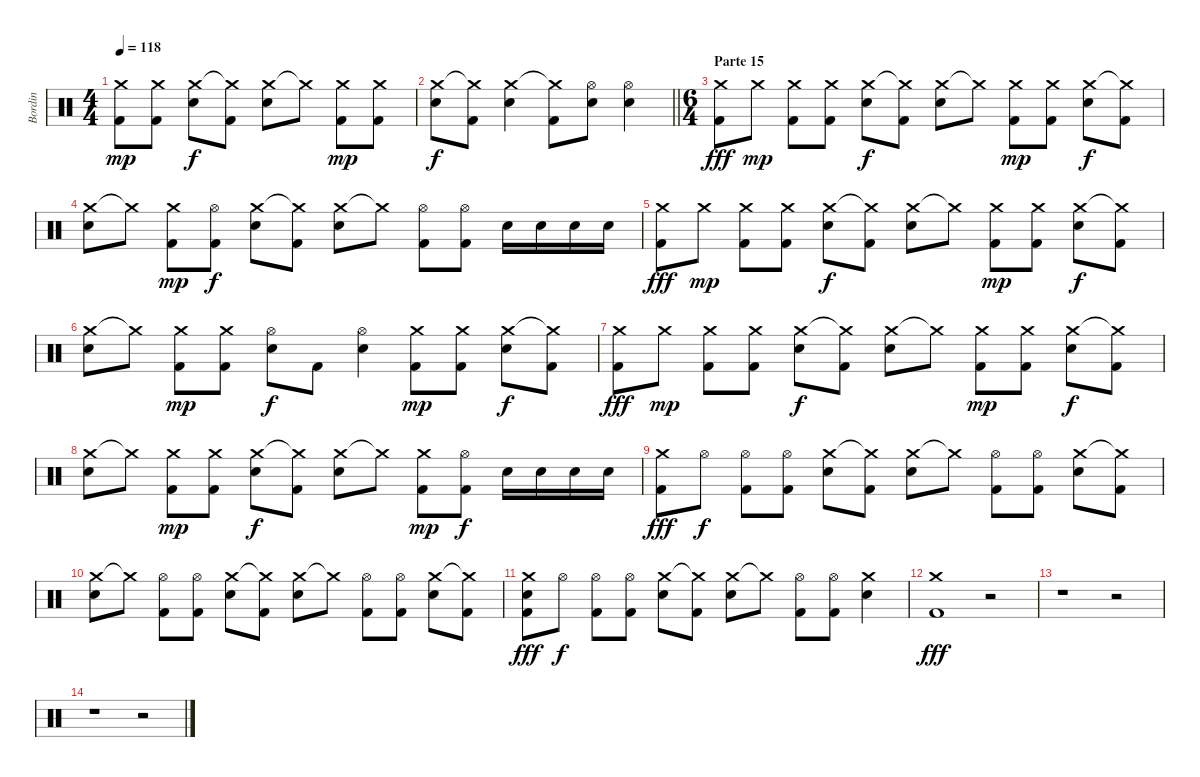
\track ("Bordin" "Bordin") {instrument percussion}
\staff {score}
\articulation defaults
\ts (4 4)
\tempo 118
\clef neutral
\ks c
("Crash medium (hit)" "Kick (hit) 2").8{dy mp} ("Crash medium (hit)" "Kick (hit) 2").8 ("Crash medium (hit)" "Electric Snare (hit)").8{dy f} ("Crash medium (hit)"{t} "Kick (hit) 2").8 ("Crash medium (hit)" "Electric Snare (hit)").8 "Crash medium (hit)"{t}.8 ("Crash medium (hit)" "Kick (hit) 2").8{dy mp} ("Crash medium (hit)" "Kick (hit) 2").8 |
\barLineRight lightlight
("Crash medium (hit)" "Electric Snare (hit)").8{dy f} ("Crash medium (hit)"{t} "Kick (hit) 2").8 ("Crash medium (hit)" "Electric Snare (hit)").4 ("Crash medium (hit)"{t} "Kick (hit) 2").8 ("Hi-Hat (open)" "Electric Snare (hit)").8 ("Hi-Hat (open)" "Electric Snare (hit)").4 |
\ts (6 4)
\section ("" "Parte 15")
("Crash medium (hit)" "Kick (hit) 2").8{dy fff} "Crash medium (hit)".8{dy mp} ("Crash medium (hit)" "Kick (hit) 2").8 ("Crash medium (hit)" "Kick (hit) 2").8 ("Crash medium (hit)" "Electric Snare (hit)").8{dy f} ("Crash medium (hit)"{t} "Kick (hit) 2").8 ("Crash medium (hit)" "Electric Snare (hit)").8 "Crash medium (hit)"{t}.8 ("Crash medium (hit)" "Kick (hit) 2").8{dy mp} ("Crash medium (hit)" "Kick (hit) 2").8 ("Crash medium (hit)" "Electric Snare (hit)").8{dy f} ("Crash medium (hit)"{t} "Kick (hit) 2").8 |
("Crash medium (hit)" "Electric Snare (hit)").8 "Crash medium (hit)"{t}.8 ("Crash medium (hit)" "Kick (hit) 2").8{dy mp} ("Hi-Hat (open)" "Kick (hit) 2").8{dy f} ("Crash medium (hit)" "Electric Snare (hit)").8 ("Crash medium (hit)"{t} "Kick (hit) 2").8 ("Crash medium (hit)" "Electric Snare (hit)").8 "Crash medium (hit)"{t}.8 ("Hi-Hat (open)" "Kick (hit) 2").8 ("Hi-Hat (open)" "Kick (hit) 2").8 "Electric Snare (hit)".16 "Electric Snare (hit)".16 "Electric Snare (hit)".16 "Electric Snare (hit)".16 |
("Crash medium (hit)" "Kick (hit) 2").8{dy fff} "Crash medium (hit)".8{dy mp} ("Crash medium (hit)" "Kick (hit) 2").8 ("Crash medium (hit)" "Kick (hit) 2").8 ("Crash medium (hit)" "Electric Snare (hit)").8{dy f} ("Crash medium (hit)"{t} "Kick (hit) 2").8 ("Crash medium (hit)" "Electric Snare (hit)").8 "Crash medium (hit)"{t}.8 ("Crash medium (hit)" "Kick (hit) 2").8{dy mp} ("Crash medium (hit)" "Kick (hit) 2").8 ("Crash medium (hit)" "Electric Snare (hit)").8{dy f} ("Crash medium (hit)"{t} "Kick (hit) 2").8 |
("Crash medium (hit)" "Electric Snare (hit)").8 "Crash medium (hit)"{t}.8 ("Crash medium (hit)" "Kick (hit) 2").8{dy mp} ("Crash medium (hit)" "Kick (hit) 2").8 ("Hi-Hat (open)" "Electric Snare (hit)").8{dy f} "Kick (hit) 2".8 ("Hi-Hat (open)" "Electric Snare (hit)").4 ("Crash medium (hit)" "Kick (hit) 2").8{dy mp} ("Crash medium (hit)" "Kick (hit) 2").8 ("Crash medium (hit)" "Electric Snare (hit)").8{dy f} ("Crash medium (hit)"{t} "Kick (hit) 2").8 |
("Crash medium (hit)" "Kick (hit) 2").8{dy fff} "Crash medium (hit)".8{dy mp} ("Crash medium (hit)" "Kick (hit) 2").8 ("Crash medium (hit)" "Kick (hit) 2").8 ("Crash medium (hit)" "Electric Snare (hit)").8{dy f} ("Crash medium (hit)"{t} "Kick (hit) 2").8 ("Crash medium (hit)" "Electric Snare (hit)").8 "Crash medium (hit)"{t}.8 ("Crash medium (hit)" "Kick (hit) 2").8{dy mp} ("Crash medium (hit)" "Kick (hit) 2").8 ("Crash medium (hit)" "Electric Snare (hit)").8{dy f} ("Crash medium (hit)"{t} "Kick (hit) 2").8 |
("Crash medium (hit)" "Electric Snare (hit)").8 "Crash medium (hit)"{t}.8 ("Crash medium (hit)" "Kick (hit) 2").8{dy mp} ("Crash medium (hit)" "Kick (hit) 2").8 ("Crash medium (hit)" "Electric Snare (hit)").8{dy f} ("Crash medium (hit)"{t} "Kick (hit) 2").8 ("Crash medium (hit)" "Electric Snare (hit)").8 "Crash medium (hit)"{t}.8 ("Crash medium (hit)" "Kick (hit) 2").8{dy mp} ("Hi-Hat (open)" "Kick (hit) 2").8{dy f} "Electric Snare (hit)".16 "Electric Snare (hit)".16 "Electric Snare (hit)".16 "Electric Snare (hit)".16 |
("Crash medium (hit)" "Kick (hit) 2").8{dy fff} "Hi-Hat (open)".8{dy f} ("Hi-Hat (open)" "Kick (hit) 2").8 ("Hi-Hat (open)" "Kick (hit) 2").8 ("Crash medium (hit)" "Electric Snare (hit)").8 ("Crash medium (hit)"{t} "Kick (hit) 2").8 ("Crash medium (hit)" "Electric Snare (hit)").8 "Crash medium (hit)"{t}.8 ("Hi-Hat (open)" "Kick (hit) 2").8 ("Hi-Hat (open)" "Kick (hit) 2").8 ("Crash medium (hit)" "Electric Snare (hit)").8 ("Crash medium (hit)"{t} "Kick (hit) 2").8 |
("Crash medium (hit)" "Electric Snare (hit)").8 "Crash medium (hit)"{t}.8 ("Hi-Hat (open)" "Kick (hit) 2").8 ("Hi-Hat (open)" "Kick (hit) 2").8 ("Crash medium (hit)" "Electric Snare (hit)").8 ("Crash medium (hit)"{t} "Kick (hit) 2").8 ("Crash medium (hit)" "Electric Snare (hit)").8 "Crash medium (hit)"{t}.8 ("Hi-Hat (open)" "Kick (hit) 2").8 ("Hi-Hat (open)" "Kick (hit) 2").8 ("Crash medium (hit)" "Electric Snare (hit)").8 ("Crash medium (hit)"{t} "Kick (hit) 2").8 |
("Crash medium (hit)" "Electric Snare (hit)" "Kick (hit) 2").8{dy fff} "Hi-Hat (open)".8{dy f} ("Hi-Hat (open)" "Kick (hit) 2").8 ("Hi-Hat (open)" "Kick (hit) 2").8 ("Crash medium (hit)" "Electric Snare (hit)").8 ("Crash medium (hit)"{t} "Kick (hit) 2").8 ("Crash medium (hit)" "Electric Snare (hit)").8 "Crash medium (hit)"{t}.8 ("Hi-Hat (open)" "Kick (hit) 2").8 ("Hi-Hat (open)" "Kick (hit) 2").8 ("Crash medium (hit)" "Electric Snare (hit)").4 |
("Crash medium (hit)" "Kick (hit) 2").1{dy fff} r.2 |
r.1 r.2 |
r.1 r.2
